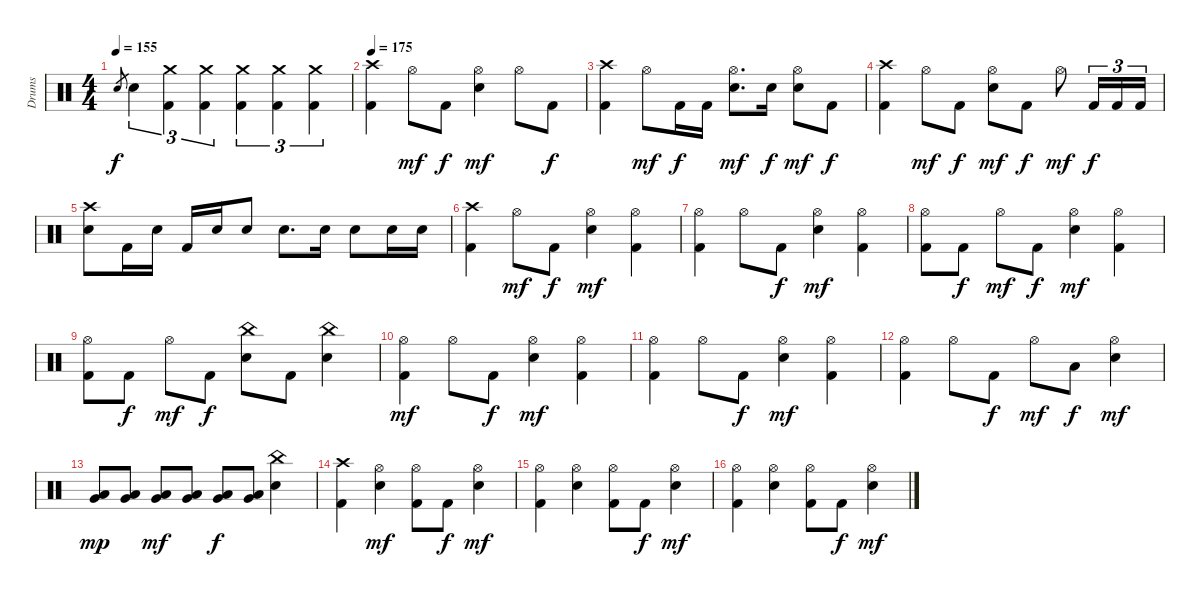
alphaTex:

\track ("Drums" "Drums") {instrument percussion}
\staff {score}
\articulation defaults
\ts (4 4)
\tempo 155
\clef neutral
\ks c "Electric Snare (hit)".8{gr dy f} "Electric Snare (hit)".4{tu (3 2)}
("Kick (hit) 2" "Crash medium (hit)").4{tu (3 2)} ("Kick (hit) 2" "Crash medium (hit)").4{tu (3 2)} ("Kick (hit) 2" "Crash medium (hit)").4{tu (3 2)} ("Kick (hit) 2" "Crash medium (hit)").4{tu (3 2)} ("Kick (hit) 2" "Crash medium (hit)").4{tu (3 2)} |
\tempo 175
("Kick (hit) 2" "Crash high (hit)").4 "Hi-Hat (open)".8{dy mf} "Kick (hit) 2".8{dy f} ("Hi-Hat (open)" "Electric Snare (hit)").4{dy mf} "Hi-Hat (open)".8 "Kick (hit) 2".8{dy f} |
("Kick (hit) 2" "Crash high (hit)").4 "Hi-Hat (open)".8{dy mf} "Kick (hit) 2".16{dy f} "Kick (hit) 2".16 ("Hi-Hat (open)" "Electric Snare (hit)").8{d dy mf} "Electric Snare (hit)".16{dy f} ("Hi-Hat (open)" "Electric Snare (hit)").8{dy mf} "Kick (hit) 2".8{dy f} |
("Kick (hit) 2" "Crash high (hit)").4 "Hi-Hat (open)".8{dy mf} "Kick (hit) 2".8{dy f} ("Hi-Hat (open)" "Electric Snare (hit)").8{dy mf} "Kick (hit) 2".8{dy f} "Hi-Hat (open)".8{dy mf} "Kick (hit) 2".16{tu (3 2) dy f} "Kick (hit) 2".16{tu (3 2)} "Kick (hit) 2".16{tu (3 2)} |
("Crash high (hit)" "Electric Snare (hit)").8 "Kick (hit) 2".16 "Electric Snare (hit)".16 "Kick (hit) 2".16 "Electric Snare (hit)".16 "Electric Snare (hit)".8 "Electric Snare (hit)".8{d} "Electric Snare (hit)".16 "Electric Snare (hit)".8 "Electric Snare (hit)".16 "Electric Snare (hit)".16 |
("Kick (hit) 2" "Crash high (hit)").4 "Hi-Hat (open)".8{dy mf} "Kick (hit) 2".8{dy f} ("Hi-Hat (open)" "Electric Snare (hit)").4{dy mf} ("Kick (hit) 2" "Hi-Hat (open)").4 |
("Kick (hit) 2" "Hi-Hat (open)").4 "Hi-Hat (open)".8 "Kick (hit) 2".8{dy f} ("Hi-Hat (open)" "Electric Snare (hit)").4{dy mf} ("Kick (hit) 2" "Hi-Hat (open)").4 |
("Kick (hit) 2" "Hi-Hat (open)").8 "Kick (hit) 2".8{dy f} "Hi-Hat (open)".8{dy mf} "Kick (hit) 2".8{dy f} ("Hi-Hat (open)" "Electric Snare (hit)").4{dy mf} ("Kick (hit) 2" "Hi-Hat (open)").4 |
("Kick (hit) 2" "Hi-Hat (open)").8 "Kick (hit) 2".8{dy f} "Hi-Hat (open)".8{dy mf} "Kick (hit) 2".8{dy f} ("China (hit)" "Electric Snare (hit)").8 "Kick (hit) 2".8 ("China (hit)" "Electric Snare (hit)").4 |
("Kick (hit) 2" "Hi-Hat (open)").4{dy mf} "Hi-Hat (open)".8 "Kick (hit) 2".8{dy f} ("Hi-Hat (open)" "Electric Snare (hit)").4{dy mf} ("Kick (hit) 2" "Hi-Hat (open)").4 |
("Kick (hit) 2" "Hi-Hat (open)").4 "Hi-Hat (open)".8 "Kick (hit) 2".8{dy f} ("Hi-Hat (open)" "Electric Snare (hit)").4{dy mf} ("Kick (hit) 2" "Hi-Hat (open)").4 |
("Kick (hit) 2" "Hi-Hat (open)").4 "Hi-Hat (open)".8 "Kick (hit) 2".8{dy f} "Hi-Hat (open)".8{dy mf} "Low Tom (hit)".8{dy f} ("Hi-Hat (open)" "Electric Snare (hit)").4{dy mf} |
("Very Low Tom (hit)" "Low Tom (hit)").8{dy mp} ("Very Low Tom (hit)" "Low Tom (hit)").8 ("Very Low Tom (hit)" "Low Tom (hit)").8{dy mf} ("Very Low Tom (hit)" "Low Tom (hit)").8 ("Very Low Tom (hit)" "Low Tom (hit)").8{dy f} ("Very Low Tom (hit)" "Low Tom (hit)").8 ("China (hit)" "Electric Snare (hit)").4 |
("Kick (hit) 2" "Crash high (hit)").4 ("Hi-Hat (open)" "Electric Snare (hit)").4{dy mf} ("Kick (hit) 2" "Hi-Hat (open)").8 "Kick (hit) 2".8{dy f} ("Hi-Hat (open)" "Electric Snare (hit)").4{dy mf} |
("Kick (hit) 2" "Hi-Hat (open)").4 ("Hi-Hat (open)" "Electric Snare (hit)").4 ("Kick (hit) 2" "Hi-Hat (open)").8 "Kick (hit) 2".8{dy f} ("Hi-Hat (open)" "Electric Snare (hit)").4{dy mf} |
("Kick (hit) 2" "Hi-Hat (open)").4 ("Hi-Hat (open)" "Electric Snare (hit)").4 ("Kick (hit) 2" "Hi-Hat (open)").8 "Kick (hit) 2".8{dy f} ("Hi-Hat (open)" "Electric Snare (hit)").4{dy mf}
